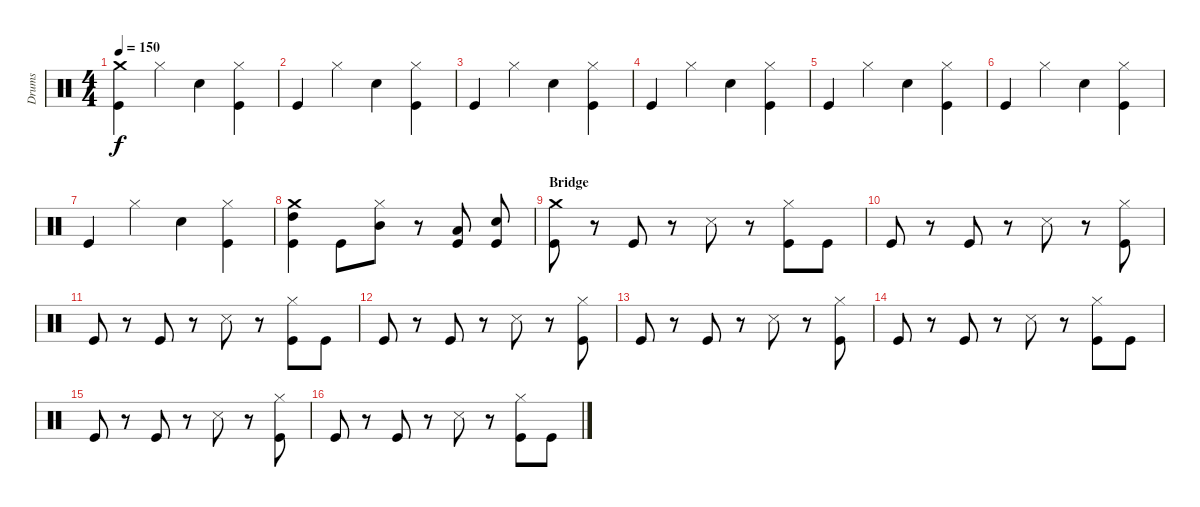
\track ("Drums" "Drums") {instrument percussion}
\staff {score}
\articulation defaults
\ts (4 4)
\tempo 150
\clef neutral
\ks c
("Crash medium (hit)" "Kick (hit)").4{dy f} "Hi-Hat (closed)".4 "Electric Snare (hit)".4 ("Hi-Hat (closed)" "Kick (hit)").4 |
"Kick (hit)".4 "Hi-Hat (closed)".4 "Electric Snare (hit)".4 ("Hi-Hat (closed)" "Kick (hit)").4 |
"Kick (hit)".4 "Hi-Hat (closed)".4 "Electric Snare (hit)".4 ("Hi-Hat (closed)" "Kick (hit)").4 |
"Kick (hit)".4 "Hi-Hat (closed)".4 "Electric Snare (hit)".4 ("Hi-Hat (closed)" "Kick (hit)").4 |
"Kick (hit)".4 "Hi-Hat (closed)".4 "Electric Snare (hit)".4 ("Hi-Hat (closed)" "Kick (hit)").4 |
"Kick (hit)".4 "Hi-Hat (closed)".4 "Electric Snare (hit)".4 ("Hi-Hat (closed)" "Kick (hit)").4 |
"Kick (hit)".4 "Hi-Hat (closed)".4 "Electric Snare (hit)".4 ("Hi-Hat (closed)" "Kick (hit)").4 |
("Crash medium (hit)" "High Tom (hit)" "Kick (hit)").4 "Kick (hit)".8 ("Hi-Hat (closed)" "Mid Tom (hit)").8 r.8 ("Low Floor Tom (hit)" "Kick (hit)").8 ("Electric Snare (hit)" "Kick (hit)").8 |
\section ("" "Bridge")
("Crash medium (hit)" "Kick (hit)").8 r.8 "Kick (hit)".8 r.8 "Snare (side stick) 3".8 r.8 ("Hi-Hat (closed)" "Kick (hit)").8 "Kick (hit)".8 |
"Kick (hit)".8 r.8 "Kick (hit)".8 r.8 "Snare (side stick) 3".8 r.8 ("Hi-Hat (closed)" "Kick (hit)").8 |
"Kick (hit)".8 r.8 "Kick (hit)".8 r.8 "Snare (side stick) 3".8 r.8 ("Hi-Hat (closed)" "Kick (hit)").8 "Kick (hit)".8 |
"Kick (hit)".8 r.8 "Kick (hit)".8 r.8 "Snare (side stick) 3".8 r.8 ("Hi-Hat (closed)" "Kick (hit)").8 |
"Kick (hit)".8 r.8 "Kick (hit)".8 r.8 "Snare (side stick) 3".8 r.8 ("Hi-Hat (closed)" "Kick (hit)").8 |
"Kick (hit)".8 r.8 "Kick (hit)".8 r.8 "Snare (side stick) 3".8 r.8 ("Hi-Hat (closed)" "Kick (hit)").8 "Kick (hit)".8 |
"Kick (hit)".8 r.8 "Kick (hit)".8 r.8 "Snare (side stick) 3".8 r.8 ("Hi-Hat (closed)" "Kick (hit)").8 |
"Kick (hit)".8 r.8 "Kick (hit)".8 r.8 "Snare (side stick) 3".8 r.8 ("Hi-Hat (closed)" "Kick (hit)").8 "Kick (hit)".8
